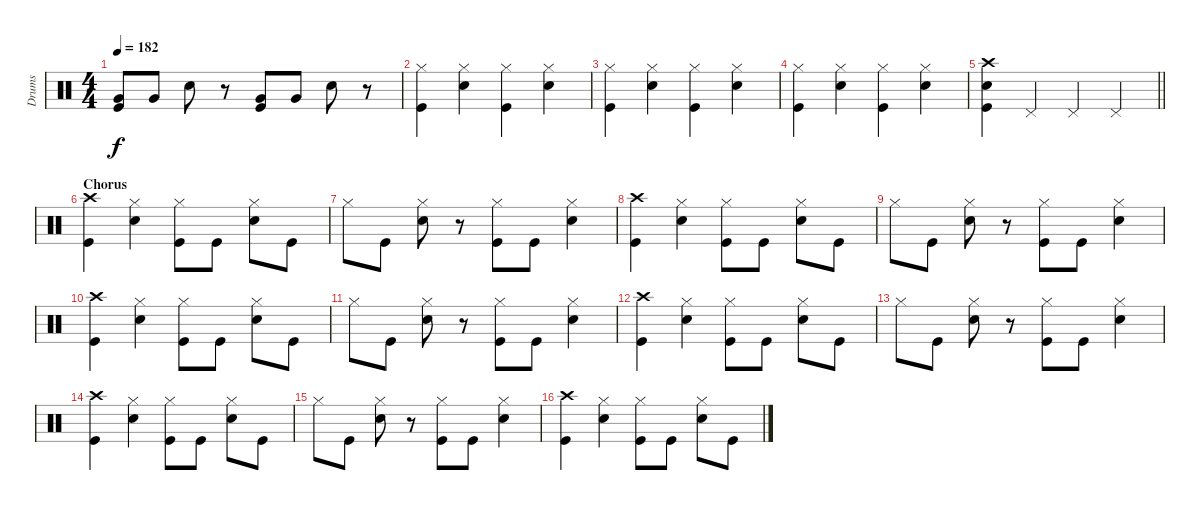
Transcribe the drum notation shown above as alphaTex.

\track ("Drums" "Drums") {instrument percussion}
\staff {score}
\articulation defaults
\ts (4 4)
\tempo 182
\clef neutral
\ks c
("Very Low Tom (hit)" "Kick (hit)").8{dy f} "Very Low Tom (hit)".8 "Snare (hit) 2".8 r.8 ("Very Low Tom (hit)" "Kick (hit)").8 "Very Low Tom (hit)".8 "Snare (hit) 2".8 r.8 |
("Kick (hit)" "Hi-Hat (closed)").4 ("Snare (hit) 2" "Hi-Hat (closed)").4 ("Kick (hit)" "Hi-Hat (closed)").4 ("Snare (hit) 2" "Hi-Hat (closed)").4 |
("Kick (hit)" "Hi-Hat (closed)").4 ("Snare (hit) 2" "Hi-Hat (closed)").4 ("Kick (hit)" "Hi-Hat (closed)").4 ("Snare (hit) 2" "Hi-Hat (closed)").4 |
("Kick (hit)" "Hi-Hat (closed)").4 ("Snare (hit) 2" "Hi-Hat (closed)").4 ("Kick (hit)" "Hi-Hat (closed)").4 ("Snare (hit) 2" "Hi-Hat (closed)").4 |
\barLineRight lightlight
("Crash high (hit)" "Snare (hit) 2" "Kick (hit)").4 "Pedal Hi-Hat (hit)".4 "Pedal Hi-Hat (hit)".4 "Pedal Hi-Hat (hit)".4 |
\section ("" "Chorus")
("Crash high (hit)" "Kick (hit)").4 ("Hi-Hat (closed)" "Snare (hit) 2").4 ("Hi-Hat (closed)" "Kick (hit)").8 "Kick (hit)".8 ("Hi-Hat (closed)" "Snare (hit) 2").8 "Kick (hit)".8 |
"Hi-Hat (closed)".8 "Kick (hit)".8 ("Hi-Hat (closed)" "Snare (hit) 2").8 r.8 ("Hi-Hat (closed)" "Kick (hit)").8 "Kick (hit)".8 ("Hi-Hat (closed)" "Snare (hit) 2").4 |
("Crash high (hit)" "Kick (hit)").4 ("Hi-Hat (closed)" "Snare (hit) 2").4 ("Hi-Hat (closed)" "Kick (hit)").8 "Kick (hit)".8 ("Hi-Hat (closed)" "Snare (hit) 2").8 "Kick (hit)".8 |
"Hi-Hat (closed)".8 "Kick (hit)".8 ("Hi-Hat (closed)" "Snare (hit) 2").8 r.8 ("Hi-Hat (closed)" "Kick (hit)").8 "Kick (hit)".8 ("Hi-Hat (closed)" "Snare (hit) 2").4 |
("Crash high (hit)" "Kick (hit)").4 ("Hi-Hat (closed)" "Snare (hit) 2").4 ("Hi-Hat (closed)" "Kick (hit)").8 "Kick (hit)".8 ("Hi-Hat (closed)" "Snare (hit) 2").8 "Kick (hit)".8 |
"Hi-Hat (closed)".8 "Kick (hit)".8 ("Hi-Hat (closed)" "Snare (hit) 2").8 r.8 ("Hi-Hat (closed)" "Kick (hit)").8 "Kick (hit)".8 ("Hi-Hat (closed)" "Snare (hit) 2").4 |
("Crash high (hit)" "Kick (hit)").4 ("Hi-Hat (closed)" "Snare (hit) 2").4 ("Hi-Hat (closed)" "Kick (hit)").8 "Kick (hit)".8 ("Hi-Hat (closed)" "Snare (hit) 2").8 "Kick (hit)".8 |
"Hi-Hat (closed)".8 "Kick (hit)".8 ("Hi-Hat (closed)" "Snare (hit) 2").8 r.8 ("Hi-Hat (closed)" "Kick (hit)").8 "Kick (hit)".8 ("Hi-Hat (closed)" "Snare (hit) 2").4 |
("Crash high (hit)" "Kick (hit)").4 ("Hi-Hat (closed)" "Snare (hit) 2").4 ("Hi-Hat (closed)" "Kick (hit)").8 "Kick (hit)".8 ("Hi-Hat (closed)" "Snare (hit) 2").8 "Kick (hit)".8 |
"Hi-Hat (closed)".8 "Kick (hit)".8 ("Hi-Hat (closed)" "Snare (hit) 2").8 r.8 ("Hi-Hat (closed)" "Kick (hit)").8 "Kick (hit)".8 ("Hi-Hat (closed)" "Snare (hit) 2").4 |
("Crash high (hit)" "Kick (hit)").4 ("Hi-Hat (closed)" "Snare (hit) 2").4 ("Hi-Hat (closed)" "Kick (hit)").8 "Kick (hit)".8 ("Hi-Hat (closed)" "Snare (hit) 2").8 "Kick (hit)".8
